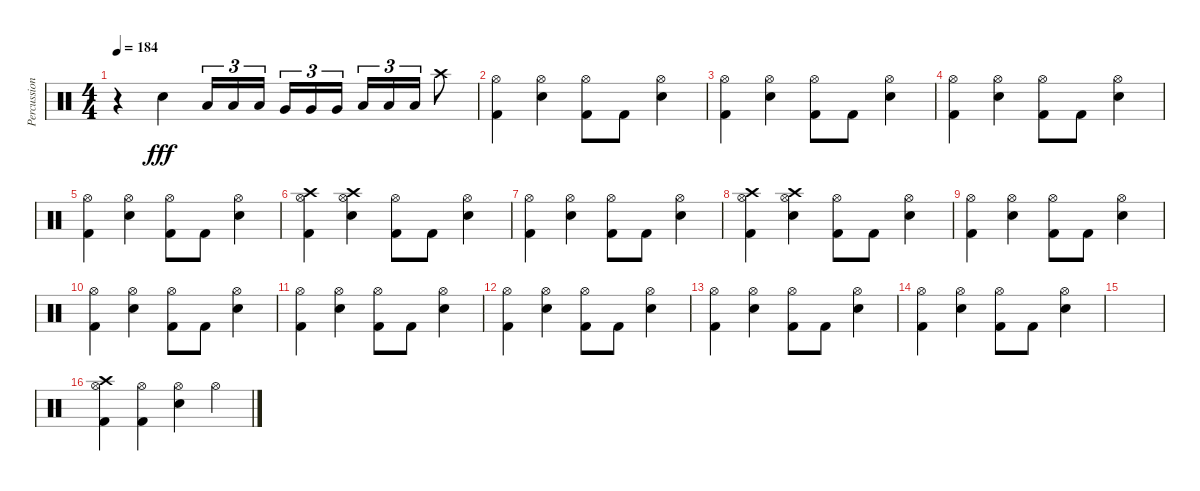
\track ("Percussion" "Percussion") {instrument percussion}
\staff {score}
\articulation defaults
\ts (4 4)
\tempo 184
\clef neutral
\ks c
r.4{dy fff} "Snare (hit) 2".4 "Low Tom (hit)".16{tu (3 2)} "Low Tom (hit)".16{tu (3 2)} "Low Tom (hit)".16{tu (3 2) beam splitsecondary} "Very Low Tom (hit)".16{tu (3 2)} "Very Low Tom (hit)".16{tu (3 2)} "Very Low Tom (hit)".16{tu (3 2)} "Low Floor Tom (hit)".16{tu (3 2)} "Low Floor Tom (hit)".16{tu (3 2)} "Low Floor Tom (hit)".16{tu (3 2)} "Crash high (hit)".8 |
("Hi-Hat (open)" "Kick (hit) 2").4 ("Hi-Hat (open)" "Snare (hit) 2").4 ("Hi-Hat (open)" "Kick (hit) 2").8 "Kick (hit) 2".8 ("Hi-Hat (open)" "Snare (hit) 2").4 |
("Hi-Hat (open)" "Kick (hit) 2").4 ("Hi-Hat (open)" "Snare (hit) 2").4 ("Hi-Hat (open)" "Kick (hit) 2").8 "Kick (hit) 2".8 ("Hi-Hat (open)" "Snare (hit) 2").4 |
("Hi-Hat (open)" "Kick (hit) 2").4 ("Hi-Hat (open)" "Snare (hit) 2").4 ("Hi-Hat (open)" "Kick (hit) 2").8 "Kick (hit) 2".8 ("Hi-Hat (open)" "Snare (hit) 2").4 |
("Hi-Hat (open)" "Kick (hit) 2").4 ("Hi-Hat (open)" "Snare (hit) 2").4 ("Hi-Hat (open)" "Kick (hit) 2").8 "Kick (hit) 2".8 ("Hi-Hat (open)" "Snare (hit) 2").4 |
("Crash high (hit)" "Hi-Hat (open)" "Kick (hit) 2").4 ("Crash high (hit)" "Hi-Hat (open)" "Snare (hit) 2").4 ("Hi-Hat (open)" "Kick (hit) 2").8 "Kick (hit) 2".8 ("Hi-Hat (open)" "Snare (hit) 2").4 |
("Hi-Hat (open)" "Kick (hit) 2").4 ("Hi-Hat (open)" "Snare (hit) 2").4 ("Hi-Hat (open)" "Kick (hit) 2").8 "Kick (hit) 2".8 ("Hi-Hat (open)" "Snare (hit) 2").4 |
("Crash high (hit)" "Hi-Hat (open)" "Kick (hit) 2").4 ("Crash high (hit)" "Hi-Hat (open)" "Snare (hit) 2").4 ("Hi-Hat (open)" "Kick (hit) 2").8 "Kick (hit) 2".8 ("Hi-Hat (open)" "Snare (hit) 2").4 |
("Hi-Hat (open)" "Kick (hit) 2").4 ("Hi-Hat (open)" "Snare (hit) 2").4 ("Hi-Hat (open)" "Kick (hit) 2").8 "Kick (hit) 2".8 ("Hi-Hat (open)" "Snare (hit) 2").4 |
("Hi-Hat (open)" "Kick (hit) 2").4 ("Hi-Hat (open)" "Snare (hit) 2").4 ("Hi-Hat (open)" "Kick (hit) 2").8 "Kick (hit) 2".8 ("Hi-Hat (open)" "Snare (hit) 2").4 |
("Hi-Hat (open)" "Kick (hit) 2").4 ("Hi-Hat (open)" "Snare (hit) 2").4 ("Hi-Hat (open)" "Kick (hit) 2").8 "Kick (hit) 2".8 ("Hi-Hat (open)" "Snare (hit) 2").4 |
("Hi-Hat (open)" "Kick (hit) 2").4 ("Hi-Hat (open)" "Snare (hit) 2").4 ("Hi-Hat (open)" "Kick (hit) 2").8 "Kick (hit) 2".8 ("Hi-Hat (open)" "Snare (hit) 2").4 |
("Hi-Hat (open)" "Kick (hit) 2").4 ("Hi-Hat (open)" "Snare (hit) 2").4 ("Hi-Hat (open)" "Kick (hit) 2").8 "Kick (hit) 2".8 ("Hi-Hat (open)" "Snare (hit) 2").4 |
("Hi-Hat (open)" "Kick (hit) 2").4 ("Hi-Hat (open)" "Snare (hit) 2").4 ("Hi-Hat (open)" "Kick (hit) 2").8 "Kick (hit) 2".8 ("Hi-Hat (open)" "Snare (hit) 2").4 |
|
("Crash high (hit)" "Hi-Hat (open)" "Kick (hit) 2").4 ("Hi-Hat (open)" "Kick (hit) 2").4 ("Hi-Hat (open)" "Snare (hit) 2").4 "Hi-Hat (open)".4
